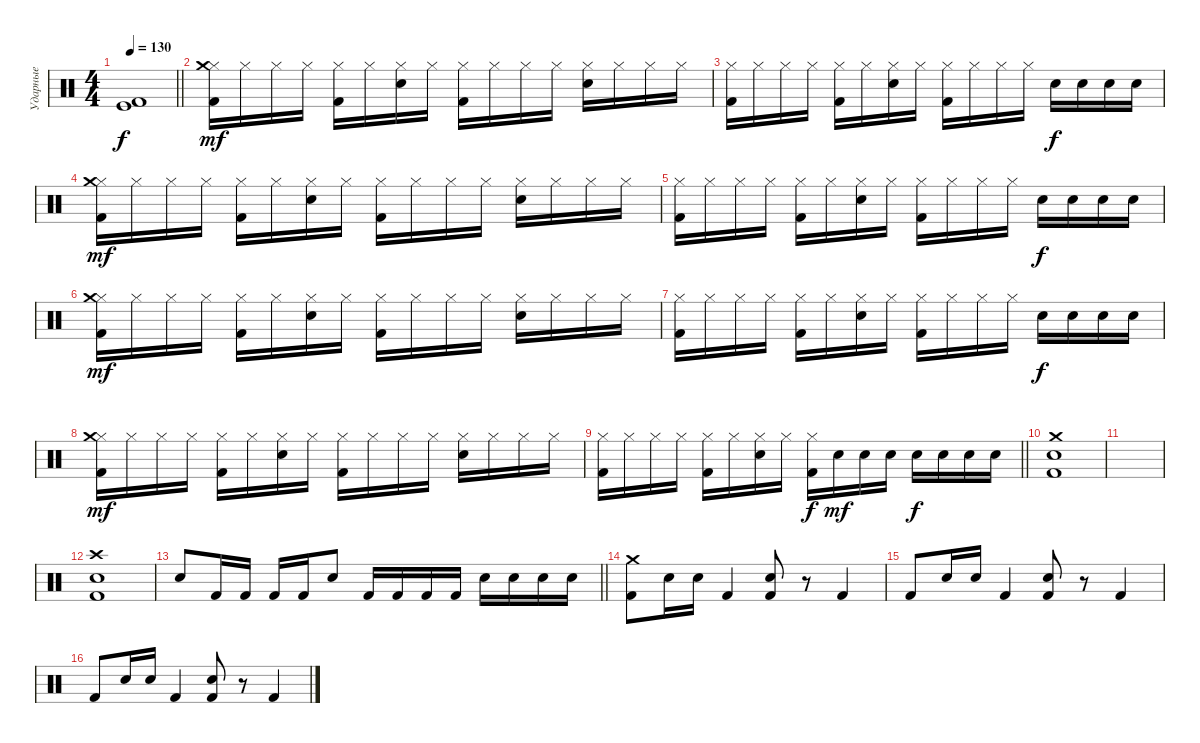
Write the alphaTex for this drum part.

\track ("Ударные" "Ударные") {instrument percussion}
\staff {score}
\articulation defaults
\ts (4 4)
\tempo 130
\clef neutral
\barLineRight lightlight
\ks c
("Kick (hit) 2" "Kick (hit)").1{dy f} |
("Hi-Hat (closed)" "Crash medium (hit)" "Kick (hit) 2").16{dy mf} "Hi-Hat (closed)".16 "Hi-Hat (closed)".16 "Hi-Hat (closed)".16 ("Hi-Hat (closed)" "Kick (hit) 2").16 "Hi-Hat (closed)".16 ("Hi-Hat (closed)" "Electric Snare (hit)").16 "Hi-Hat (closed)".16 ("Hi-Hat (closed)" "Kick (hit) 2").16 "Hi-Hat (closed)".16 "Hi-Hat (closed)".16 "Hi-Hat (closed)".16 ("Hi-Hat (closed)" "Electric Snare (hit)").16 "Hi-Hat (closed)".16 "Hi-Hat (closed)".16 "Hi-Hat (closed)".16 |
("Hi-Hat (closed)" "Kick (hit) 2").16 "Hi-Hat (closed)".16 "Hi-Hat (closed)".16 "Hi-Hat (closed)".16 ("Hi-Hat (closed)" "Kick (hit) 2").16 "Hi-Hat (closed)".16 ("Hi-Hat (closed)" "Electric Snare (hit)").16 "Hi-Hat (closed)".16 ("Hi-Hat (closed)" "Kick (hit) 2").16 "Hi-Hat (closed)".16 "Hi-Hat (closed)".16 "Hi-Hat (closed)".16 "Electric Snare (hit)".16{dy f} "Electric Snare (hit)".16 "Electric Snare (hit)".16 "Electric Snare (hit)".16 |
("Hi-Hat (closed)" "Crash medium (hit)" "Kick (hit) 2").16{dy mf} "Hi-Hat (closed)".16 "Hi-Hat (closed)".16 "Hi-Hat (closed)".16 ("Hi-Hat (closed)" "Kick (hit) 2").16 "Hi-Hat (closed)".16 ("Hi-Hat (closed)" "Electric Snare (hit)").16 "Hi-Hat (closed)".16 ("Hi-Hat (closed)" "Kick (hit) 2").16 "Hi-Hat (closed)".16 "Hi-Hat (closed)".16 "Hi-Hat (closed)".16 ("Hi-Hat (closed)" "Electric Snare (hit)").16 "Hi-Hat (closed)".16 "Hi-Hat (closed)".16 "Hi-Hat (closed)".16 |
("Hi-Hat (closed)" "Kick (hit) 2").16 "Hi-Hat (closed)".16 "Hi-Hat (closed)".16 "Hi-Hat (closed)".16 ("Hi-Hat (closed)" "Kick (hit) 2").16 "Hi-Hat (closed)".16 ("Hi-Hat (closed)" "Electric Snare (hit)").16 "Hi-Hat (closed)".16 ("Hi-Hat (closed)" "Kick (hit) 2").16 "Hi-Hat (closed)".16 "Hi-Hat (closed)".16 "Hi-Hat (closed)".16 "Electric Snare (hit)".16{dy f} "Electric Snare (hit)".16 "Electric Snare (hit)".16 "Electric Snare (hit)".16 |
("Hi-Hat (closed)" "Crash medium (hit)" "Kick (hit) 2").16{dy mf} "Hi-Hat (closed)".16 "Hi-Hat (closed)".16 "Hi-Hat (closed)".16 ("Hi-Hat (closed)" "Kick (hit) 2").16 "Hi-Hat (closed)".16 ("Hi-Hat (closed)" "Electric Snare (hit)").16 "Hi-Hat (closed)".16 ("Hi-Hat (closed)" "Kick (hit) 2").16 "Hi-Hat (closed)".16 "Hi-Hat (closed)".16 "Hi-Hat (closed)".16 ("Hi-Hat (closed)" "Electric Snare (hit)").16 "Hi-Hat (closed)".16 "Hi-Hat (closed)".16 "Hi-Hat (closed)".16 |
("Hi-Hat (closed)" "Kick (hit) 2").16 "Hi-Hat (closed)".16 "Hi-Hat (closed)".16 "Hi-Hat (closed)".16 ("Hi-Hat (closed)" "Kick (hit) 2").16 "Hi-Hat (closed)".16 ("Hi-Hat (closed)" "Electric Snare (hit)").16 "Hi-Hat (closed)".16 ("Hi-Hat (closed)" "Kick (hit) 2").16 "Hi-Hat (closed)".16 "Hi-Hat (closed)".16 "Hi-Hat (closed)".16 "Electric Snare (hit)".16{dy f} "Electric Snare (hit)".16 "Electric Snare (hit)".16 "Electric Snare (hit)".16 |
("Hi-Hat (closed)" "Crash medium (hit)" "Kick (hit) 2").16{dy mf} "Hi-Hat (closed)".16 "Hi-Hat (closed)".16 "Hi-Hat (closed)".16 ("Hi-Hat (closed)" "Kick (hit) 2").16 "Hi-Hat (closed)".16 ("Hi-Hat (closed)" "Electric Snare (hit)").16 "Hi-Hat (closed)".16 ("Hi-Hat (closed)" "Kick (hit) 2").16 "Hi-Hat (closed)".16 "Hi-Hat (closed)".16 "Hi-Hat (closed)".16 ("Hi-Hat (closed)" "Electric Snare (hit)").16 "Hi-Hat (closed)".16 "Hi-Hat (closed)".16 "Hi-Hat (closed)".16 |
\barLineRight lightlight
("Hi-Hat (closed)" "Kick (hit) 2").16 "Hi-Hat (closed)".16 "Hi-Hat (closed)".16 "Hi-Hat (closed)".16 ("Hi-Hat (closed)" "Kick (hit) 2").16 "Hi-Hat (closed)".16 ("Hi-Hat (closed)" "Electric Snare (hit)").16 "Hi-Hat (closed)".16 ("Hi-Hat (closed)" "Kick (hit) 2").16{dy f} "Electric Snare (hit)".16{dy mf} "Electric Snare (hit)".16 "Electric Snare (hit)".16 "Electric Snare (hit)".16{dy f} "Electric Snare (hit)".16 "Electric Snare (hit)".16 "Electric Snare (hit)".16 |
("Electric Snare (hit)" "Kick (hit) 2" "Crash medium (hit)").1 |
|
("Electric Snare (hit)" "Kick (hit) 2" "Crash high (hit)").1 |
\barLineRight lightlight "Electric Snare (hit)".8 "Kick (hit) 2".16 "Kick (hit) 2".16 "Kick (hit) 2".16 "Kick (hit) 2".16 "Electric Snare (hit)".8 "Kick (hit) 2".16 "Kick (hit) 2".16 "Kick (hit) 2".16 "Kick (hit) 2".16 "Electric Snare (hit)".16 "Electric Snare (hit)".16 "Electric Snare (hit)".16 "Electric Snare (hit)".16
|
("Crash medium (hit)" "Kick (hit) 2").8 "Electric Snare (hit)".16 "Electric Snare (hit)".16 "Kick (hit) 2".4 ("Electric Snare (hit)" "Kick (hit) 2").8 r.8 "Kick (hit) 2".4 |
"Kick (hit) 2".8 "Electric Snare (hit)".16 "Electric Snare (hit)".16 "Kick (hit) 2".4 ("Electric Snare (hit)" "Kick (hit) 2").8 r.8 "Kick (hit) 2".4 |
"Kick (hit) 2".8 "Electric Snare (hit)".16 "Electric Snare (hit)".16 "Kick (hit) 2".4 ("Electric Snare (hit)" "Kick (hit) 2").8 r.8 "Kick (hit) 2".4
